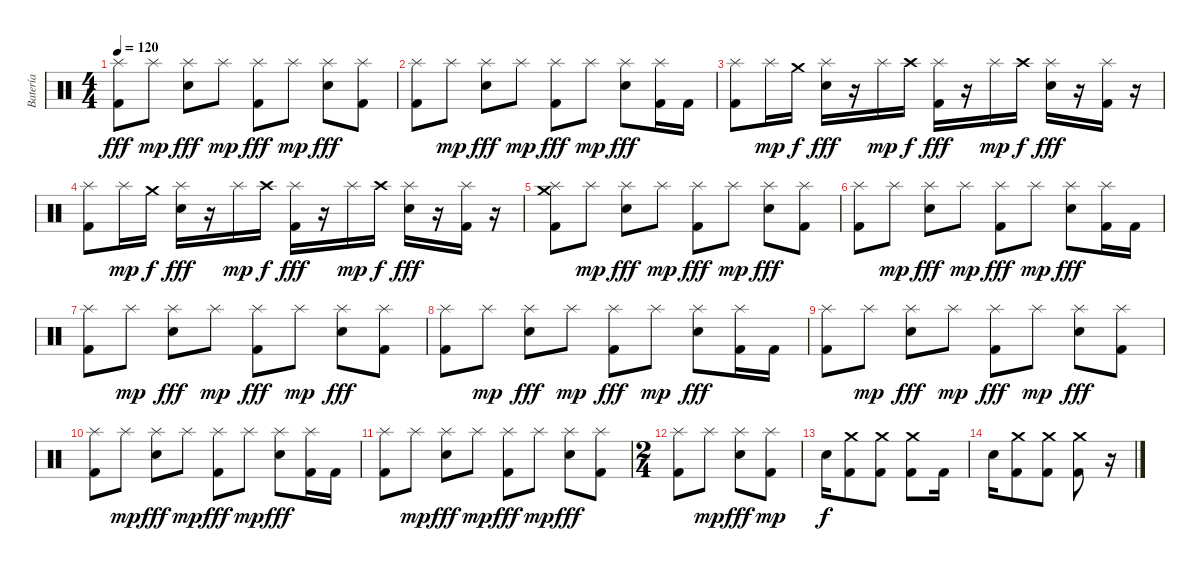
\track ("Batería" "Batería") {instrument percussion}
\staff {score}
\articulation defaults
\ts (4 4)
\tempo 120
\clef neutral
\ks c
("Splash (hit)" "Kick (hit) 2").8{dy fff} "Splash (hit)".8{dy mp} ("Splash (hit)" "Electric Snare (hit)").8{dy fff} "Splash (hit)".8{dy mp} ("Splash (hit)" "Kick (hit) 2").8{dy fff} "Splash (hit)".8{dy mp} ("Splash (hit)" "Electric Snare (hit)").8{dy fff} ("Splash (hit)" "Kick (hit) 2").8 |
("Splash (hit)" "Kick (hit) 2").8 "Splash (hit)".8{dy mp} ("Splash (hit)" "Electric Snare (hit)").8{dy fff} "Splash (hit)".8{dy mp} ("Splash (hit)" "Kick (hit) 2").8{dy fff} "Splash (hit)".8{dy mp} ("Splash (hit)" "Electric Snare (hit)").8{dy fff} ("Splash (hit)" "Kick (hit) 2").16 "Kick (hit) 2".16 |
("Splash (hit)" "Kick (hit) 2").8 "Splash (hit)".16{dy mp} "Crash medium (hit)".16{dy f} ("Splash (hit)" "Electric Snare (hit)").16{dy fff} r.16 "Splash (hit)".16{dy mp} "Crash high (hit)".16{dy f} ("Splash (hit)" "Kick (hit) 2").16{dy fff} r.16 "Splash (hit)".16{dy mp} "Crash high (hit)".16{dy f} ("Splash (hit)" "Electric Snare (hit)").16{dy fff} r.16 ("Splash (hit)" "Kick (hit) 2").16 r.16 |
("Splash (hit)" "Kick (hit) 2").8 "Splash (hit)".16{dy mp} "Crash medium (hit)".16{dy f} ("Splash (hit)" "Electric Snare (hit)").16{dy fff} r.16 "Splash (hit)".16{dy mp} "Crash high (hit)".16{dy f} ("Splash (hit)" "Kick (hit) 2").16{dy fff} r.16 "Splash (hit)".16{dy mp} "Crash high (hit)".16{dy f} ("Splash (hit)" "Electric Snare (hit)").16{dy fff} r.16 ("Splash (hit)" "Kick (hit) 2").16 r.16 |
("Splash (hit)" "Crash medium (hit)" "Kick (hit) 2").8 "Splash (hit)".8{dy mp} ("Splash (hit)" "Electric Snare (hit)").8{dy fff} "Splash (hit)".8{dy mp} ("Splash (hit)" "Kick (hit) 2").8{dy fff} "Splash (hit)".8{dy mp} ("Splash (hit)" "Electric Snare (hit)").8{dy fff} ("Splash (hit)" "Kick (hit) 2").8 |
("Splash (hit)" "Kick (hit) 2").8 "Splash (hit)".8{dy mp} ("Splash (hit)" "Electric Snare (hit)").8{dy fff} "Splash (hit)".8{dy mp} ("Splash (hit)" "Kick (hit) 2").8{dy fff} "Splash (hit)".8{dy mp} ("Splash (hit)" "Electric Snare (hit)").8{dy fff} ("Splash (hit)" "Kick (hit) 2").16 "Kick (hit) 2".16 |
("Splash (hit)" "Kick (hit) 2").8 "Splash (hit)".8{dy mp} ("Splash (hit)" "Electric Snare (hit)").8{dy fff} "Splash (hit)".8{dy mp} ("Splash (hit)" "Kick (hit) 2").8{dy fff} "Splash (hit)".8{dy mp} ("Splash (hit)" "Electric Snare (hit)").8{dy fff} ("Splash (hit)" "Kick (hit) 2").8 |
("Splash (hit)" "Kick (hit) 2").8 "Splash (hit)".8{dy mp} ("Splash (hit)" "Electric Snare (hit)").8{dy fff} "Splash (hit)".8{dy mp} ("Splash (hit)" "Kick (hit) 2").8{dy fff} "Splash (hit)".8{dy mp} ("Splash (hit)" "Electric Snare (hit)").8{dy fff} ("Splash (hit)" "Kick (hit) 2").16 "Kick (hit) 2".16 |
("Splash (hit)" "Kick (hit) 2").8 "Splash (hit)".8{dy mp} ("Splash (hit)" "Electric Snare (hit)").8{dy fff} "Splash (hit)".8{dy mp} ("Splash (hit)" "Kick (hit) 2").8{dy fff} "Splash (hit)".8{dy mp} ("Splash (hit)" "Electric Snare (hit)").8{dy fff} ("Splash (hit)" "Kick (hit) 2").8 |
("Splash (hit)" "Kick (hit) 2").8 "Splash (hit)".8{dy mp} ("Splash (hit)" "Electric Snare (hit)").8{dy fff} "Splash (hit)".8{dy mp} ("Splash (hit)" "Kick (hit) 2").8{dy fff} "Splash (hit)".8{dy mp} ("Splash (hit)" "Electric Snare (hit)").8{dy fff} ("Splash (hit)" "Kick (hit) 2").16 "Kick (hit) 2".16 |
("Splash (hit)" "Kick (hit) 2").8 "Splash (hit)".8{dy mp} ("Splash (hit)" "Electric Snare (hit)").8{dy fff} "Splash (hit)".8{dy mp} ("Splash (hit)" "Kick (hit) 2").8{dy fff} "Splash (hit)".8{dy mp} ("Splash (hit)" "Electric Snare (hit)").8{dy fff} ("Splash (hit)" "Kick (hit) 2").8 |
\ts (2 4)
("Splash (hit)" "Kick (hit) 2").8 "Splash (hit)".8{dy mp} ("Splash (hit)" "Electric Snare (hit)").8{dy fff} ("Splash (hit)" "Kick (hit) 2").8{dy mp} |
"Electric Snare (hit)".16{dy f} ("Crash medium (hit)" "Kick (hit) 2").8 ("Crash medium (hit)" "Kick (hit) 2").8 ("Crash medium (hit)" "Kick (hit) 2").8 "Kick (hit) 2".16 |
"Electric Snare (hit)".16 ("Crash medium (hit)" "Kick (hit) 2").8 ("Crash medium (hit)" "Kick (hit) 2").8 ("Crash medium (hit)" "Kick (hit) 2").8 r.16
